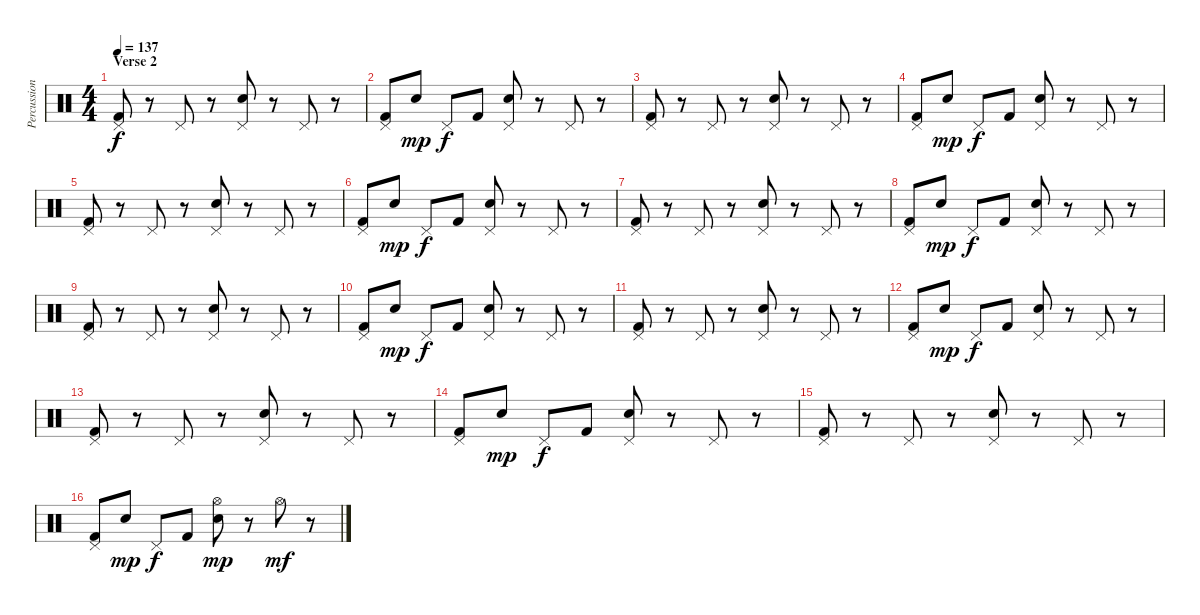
\track ("Percussions" "Percussion") {instrument percussion}
\staff {score}
\articulation defaults
\ts (4 4)
\section ("" "Verse 2")
\tempo 137
\clef neutral
\ks c
("Pedal Hi-Hat (hit)" "Kick (hit) 2").8{dy f} r.8 "Pedal Hi-Hat (hit)".8 r.8 ("Pedal Hi-Hat (hit)" "Electric Snare (hit)").8 r.8 "Pedal Hi-Hat (hit)".8 r.8 |
("Pedal Hi-Hat (hit)" "Kick (hit) 2").8 "Electric Snare (hit)".8{dy mp} "Pedal Hi-Hat (hit)".8{dy f} "Kick (hit) 2".8 ("Pedal Hi-Hat (hit)" "Electric Snare (hit)").8 r.8 "Pedal Hi-Hat (hit)".8 r.8 |
("Pedal Hi-Hat (hit)" "Kick (hit) 2").8 r.8 "Pedal Hi-Hat (hit)".8 r.8 ("Pedal Hi-Hat (hit)" "Electric Snare (hit)").8 r.8 "Pedal Hi-Hat (hit)".8 r.8 |
("Pedal Hi-Hat (hit)" "Kick (hit) 2").8 "Electric Snare (hit)".8{dy mp} "Pedal Hi-Hat (hit)".8{dy f} "Kick (hit) 2".8 ("Pedal Hi-Hat (hit)" "Electric Snare (hit)").8 r.8 "Pedal Hi-Hat (hit)".8 r.8 |
("Pedal Hi-Hat (hit)" "Kick (hit) 2").8 r.8 "Pedal Hi-Hat (hit)".8 r.8 ("Pedal Hi-Hat (hit)" "Electric Snare (hit)").8 r.8 "Pedal Hi-Hat (hit)".8 r.8 |
("Pedal Hi-Hat (hit)" "Kick (hit) 2").8 "Electric Snare (hit)".8{dy mp} "Pedal Hi-Hat (hit)".8{dy f} "Kick (hit) 2".8 ("Pedal Hi-Hat (hit)" "Electric Snare (hit)").8 r.8 "Pedal Hi-Hat (hit)".8 r.8 |
("Pedal Hi-Hat (hit)" "Kick (hit) 2").8 r.8 "Pedal Hi-Hat (hit)".8 r.8 ("Pedal Hi-Hat (hit)" "Electric Snare (hit)").8 r.8 "Pedal Hi-Hat (hit)".8 r.8 |
("Pedal Hi-Hat (hit)" "Kick (hit) 2").8 "Electric Snare (hit)".8{dy mp} "Pedal Hi-Hat (hit)".8{dy f} "Kick (hit) 2".8 ("Pedal Hi-Hat (hit)" "Electric Snare (hit)").8 r.8 "Pedal Hi-Hat (hit)".8 r.8 |
("Pedal Hi-Hat (hit)" "Kick (hit) 2").8 r.8 "Pedal Hi-Hat (hit)".8 r.8 ("Pedal Hi-Hat (hit)" "Electric Snare (hit)").8 r.8 "Pedal Hi-Hat (hit)".8 r.8 |
("Pedal Hi-Hat (hit)" "Kick (hit) 2").8 "Electric Snare (hit)".8{dy mp} "Pedal Hi-Hat (hit)".8{dy f} "Kick (hit) 2".8 ("Pedal Hi-Hat (hit)" "Electric Snare (hit)").8 r.8 "Pedal Hi-Hat (hit)".8 r.8 |
("Pedal Hi-Hat (hit)" "Kick (hit) 2").8 r.8 "Pedal Hi-Hat (hit)".8 r.8 ("Pedal Hi-Hat (hit)" "Electric Snare (hit)").8 r.8 "Pedal Hi-Hat (hit)".8 r.8 |
("Pedal Hi-Hat (hit)" "Kick (hit) 2").8 "Electric Snare (hit)".8{dy mp} "Pedal Hi-Hat (hit)".8{dy f} "Kick (hit) 2".8 ("Pedal Hi-Hat (hit)" "Electric Snare (hit)").8 r.8 "Pedal Hi-Hat (hit)".8 r.8 |
("Pedal Hi-Hat (hit)" "Kick (hit) 2").8 r.8 "Pedal Hi-Hat (hit)".8 r.8 ("Pedal Hi-Hat (hit)" "Electric Snare (hit)").8 r.8 "Pedal Hi-Hat (hit)".8 r.8 |
("Pedal Hi-Hat (hit)" "Kick (hit) 2").8 "Electric Snare (hit)".8{dy mp} "Pedal Hi-Hat (hit)".8{dy f} "Kick (hit) 2".8 ("Pedal Hi-Hat (hit)" "Electric Snare (hit)").8 r.8 "Pedal Hi-Hat (hit)".8 r.8 |
("Pedal Hi-Hat (hit)" "Kick (hit) 2").8 r.8 "Pedal Hi-Hat (hit)".8 r.8 ("Pedal Hi-Hat (hit)" "Electric Snare (hit)").8 r.8 "Pedal Hi-Hat (hit)".8 r.8 |
("Pedal Hi-Hat (hit)" "Kick (hit) 2").8 "Electric Snare (hit)".8{dy mp} "Pedal Hi-Hat (hit)".8{dy f} "Kick (hit) 2".8 ("Hi-Hat (open)" "Electric Snare (hit)").8{dy mp} r.8 "Hi-Hat (open)".8{dy mf} r.8
